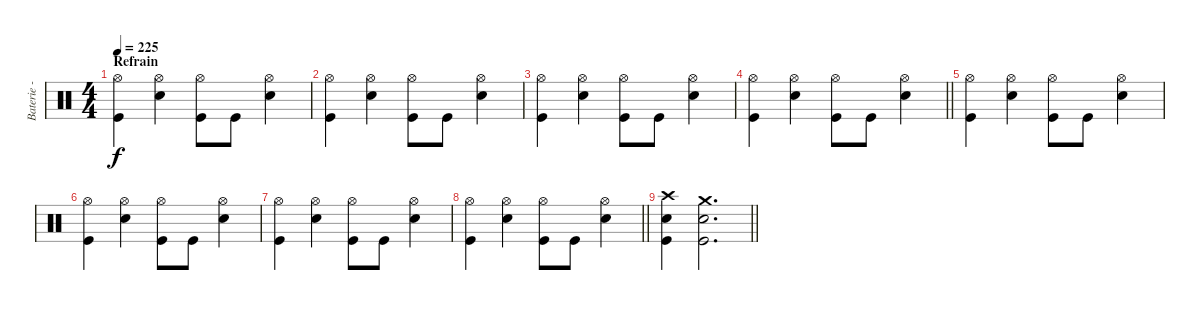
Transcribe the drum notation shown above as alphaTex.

\track ("Baterie - Alex" "Baterie - ") {instrument percussion}
\staff {score}
\articulation defaults
\ts (4 4)
\section ("" "Refrain")
\tempo 225
\clef neutral
\ks c
("Hi-Hat (open)" "Kick (hit)").4{dy f} ("Hi-Hat (open)" "Electric Snare (hit)").4 ("Hi-Hat (open)" "Kick (hit)").8 "Kick (hit)".8 ("Hi-Hat (open)" "Electric Snare (hit)").4 |
("Hi-Hat (open)" "Kick (hit)").4 ("Hi-Hat (open)" "Electric Snare (hit)").4 ("Hi-Hat (open)" "Kick (hit)").8 "Kick (hit)".8 ("Hi-Hat (open)" "Electric Snare (hit)").4 |
("Hi-Hat (open)" "Kick (hit)").4 ("Hi-Hat (open)" "Electric Snare (hit)").4 ("Hi-Hat (open)" "Kick (hit)").8 "Kick (hit)".8 ("Hi-Hat (open)" "Electric Snare (hit)").4 |
\barLineRight lightlight
("Hi-Hat (open)" "Kick (hit)").4 ("Hi-Hat (open)" "Electric Snare (hit)").4 ("Hi-Hat (open)" "Kick (hit)").8 "Kick (hit)".8 ("Hi-Hat (open)" "Electric Snare (hit)").4 |
("Hi-Hat (open)" "Kick (hit)").4 ("Hi-Hat (open)" "Electric Snare (hit)").4 ("Hi-Hat (open)" "Kick (hit)").8 "Kick (hit)".8 ("Hi-Hat (open)" "Electric Snare (hit)").4 |
("Hi-Hat (open)" "Kick (hit)").4 ("Hi-Hat (open)" "Electric Snare (hit)").4 ("Hi-Hat (open)" "Kick (hit)").8 "Kick (hit)".8 ("Hi-Hat (open)" "Electric Snare (hit)").4 |
("Hi-Hat (open)" "Kick (hit)").4 ("Hi-Hat (open)" "Electric Snare (hit)").4 ("Hi-Hat (open)" "Kick (hit)").8 "Kick (hit)".8 ("Hi-Hat (open)" "Electric Snare (hit)").4 |
\barLineRight lightlight
("Hi-Hat (open)" "Kick (hit)").4 ("Hi-Hat (open)" "Electric Snare (hit)").4 ("Hi-Hat (open)" "Kick (hit)").8 "Kick (hit)".8 ("Hi-Hat (open)" "Electric Snare (hit)").4 |
\barLineRight lightlight
("Crash high (hit)" "Electric Snare (hit)" "Kick (hit)").4 ("Crash medium (hit)" "Electric Snare (hit)" "Kick (hit)").2{d}
